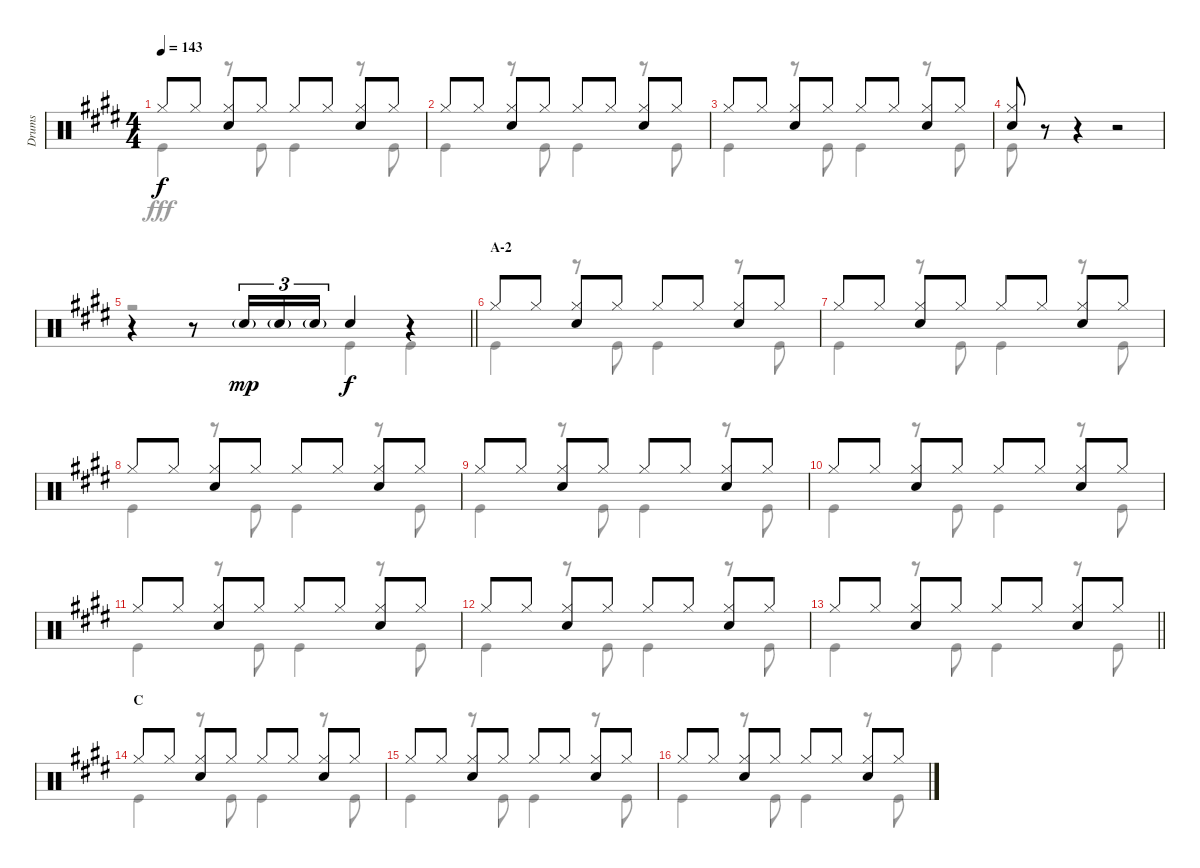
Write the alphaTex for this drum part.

\track ("Drums" "Drums") {instrument percussion}
\staff {score}
\articulation defaults
\voice
\ts (4 4)
\tempo 143
\clef neutral
\ks e "Hi-Hat (closed)".8{dy f} "Hi-Hat (closed)".8
("Hi-Hat (closed)" "Snare (hit) 2").8 "Hi-Hat (closed)".8 "Hi-Hat (closed)".8 "Hi-Hat (closed)".8 ("Hi-Hat (closed)" "Snare (hit) 2").8 "Hi-Hat (closed)".8 |
"Hi-Hat (closed)".8 "Hi-Hat (closed)".8 ("Hi-Hat (closed)" "Snare (hit) 2").8 "Hi-Hat (closed)".8 "Hi-Hat (closed)".8 "Hi-Hat (closed)".8 ("Hi-Hat (closed)" "Snare (hit) 2").8 "Hi-Hat (closed)".8 |
"Hi-Hat (closed)".8 "Hi-Hat (closed)".8 ("Hi-Hat (closed)" "Snare (hit) 2").8 "Hi-Hat (closed)".8 "Hi-Hat (closed)".8 "Hi-Hat (closed)".8 ("Hi-Hat (closed)" "Snare (hit) 2").8 "Hi-Hat (closed)".8 |
("Hi-Hat (closed)" "Snare (hit) 2").8 r.8 r.4 r.2 |
\barLineRight lightlight
r.4 r.8 "Snare (hit) 2"{g}.16{tu (3 2) dy mp} "Snare (hit) 2"{g}.16{tu (3 2)} "Snare (hit) 2"{g}.16{tu (3 2)} "Snare (hit) 2".4{dy f} r.4 |
\section ("" "A-2")
"Hi-Hat (closed)".8 "Hi-Hat (closed)".8 ("Hi-Hat (closed)" "Snare (hit) 2").8 "Hi-Hat (closed)".8 "Hi-Hat (closed)".8 "Hi-Hat (closed)".8 ("Hi-Hat (closed)" "Snare (hit) 2").8 "Hi-Hat (closed)".8 |
"Hi-Hat (closed)".8 "Hi-Hat (closed)".8 ("Hi-Hat (closed)" "Snare (hit) 2").8 "Hi-Hat (closed)".8 "Hi-Hat (closed)".8 "Hi-Hat (closed)".8 ("Hi-Hat (closed)" "Snare (hit) 2").8 "Hi-Hat (closed)".8 |
"Hi-Hat (closed)".8 "Hi-Hat (closed)".8 ("Hi-Hat (closed)" "Snare (hit) 2").8 "Hi-Hat (closed)".8 "Hi-Hat (closed)".8 "Hi-Hat (closed)".8 ("Hi-Hat (closed)" "Snare (hit) 2").8 "Hi-Hat (closed)".8 |
"Hi-Hat (closed)".8 "Hi-Hat (closed)".8 ("Hi-Hat (closed)" "Snare (hit) 2").8 "Hi-Hat (closed)".8 "Hi-Hat (closed)".8 "Hi-Hat (closed)".8 ("Hi-Hat (closed)" "Snare (hit) 2").8 "Hi-Hat (closed)".8 |
"Hi-Hat (closed)".8 "Hi-Hat (closed)".8 ("Hi-Hat (closed)" "Snare (hit) 2").8 "Hi-Hat (closed)".8 "Hi-Hat (closed)".8 "Hi-Hat (closed)".8 ("Hi-Hat (closed)" "Snare (hit) 2").8 "Hi-Hat (closed)".8 |
"Hi-Hat (closed)".8 "Hi-Hat (closed)".8 ("Hi-Hat (closed)" "Snare (hit) 2").8 "Hi-Hat (closed)".8 "Hi-Hat (closed)".8 "Hi-Hat (closed)".8 ("Hi-Hat (closed)" "Snare (hit) 2").8 "Hi-Hat (closed)".8 |
"Hi-Hat (closed)".8 "Hi-Hat (closed)".8 ("Hi-Hat (closed)" "Snare (hit) 2").8 "Hi-Hat (closed)".8 "Hi-Hat (closed)".8 "Hi-Hat (closed)".8 ("Hi-Hat (closed)" "Snare (hit) 2").8 "Hi-Hat (closed)".8 |
\barLineRight lightlight "Hi-Hat (closed)".8 "Hi-Hat (closed)".8
("Hi-Hat (closed)" "Snare (hit) 2").8 "Hi-Hat (closed)".8 "Hi-Hat (closed)".8 "Hi-Hat (closed)".8 ("Hi-Hat (closed)" "Snare (hit) 2").8 "Hi-Hat (closed)".8 |
\section ("" "C")
"Hi-Hat (closed)".8 "Hi-Hat (closed)".8 ("Hi-Hat (closed)" "Snare (hit) 2").8 "Hi-Hat (closed)".8 "Hi-Hat (closed)".8 "Hi-Hat (closed)".8 ("Hi-Hat (closed)" "Snare (hit) 2").8 "Hi-Hat (closed)".8 |
"Hi-Hat (closed)".8 "Hi-Hat (closed)".8 ("Hi-Hat (closed)" "Snare (hit) 2").8 "Hi-Hat (closed)".8 "Hi-Hat (closed)".8 "Hi-Hat (closed)".8 ("Hi-Hat (closed)" "Snare (hit) 2").8 "Hi-Hat (closed)".8 |
"Hi-Hat (closed)".8 "Hi-Hat (closed)".8 ("Hi-Hat (closed)" "Snare (hit) 2").8 "Hi-Hat (closed)".8 "Hi-Hat (closed)".8 "Hi-Hat (closed)".8 ("Hi-Hat (closed)" "Snare (hit) 2").8 "Hi-Hat (closed)".8
\voice
\clef neutral
\ottava regular
\simile none
\ks e "Kick (hit)".4{dy fff}
r.8 "Kick (hit)".8 "Kick (hit)".4 r.8 "Kick (hit)".8 |
"Kick (hit)".4 r.8 "Kick (hit)".8 "Kick (hit)".4 r.8 "Kick (hit)".8 |
"Kick (hit)".4 r.8 "Kick (hit)".8 "Kick (hit)".4 r.8 "Kick (hit)".8 |
"Kick (hit)".8 r.8 r.4 r.2 |
\barLineRight lightlight
r.2 "Kick (hit)".4 "Kick (hit)".4 |
"Kick (hit)".4 r.8 "Kick (hit)".8 "Kick (hit)".4 r.8 "Kick (hit)".8 |
"Kick (hit)".4 r.8 "Kick (hit)".8 "Kick (hit)".4 r.8 "Kick (hit)".8 |
"Kick (hit)".4 r.8 "Kick (hit)".8 "Kick (hit)".4 r.8 "Kick (hit)".8 |
"Kick (hit)".4 r.8 "Kick (hit)".8 "Kick (hit)".4 r.8 "Kick (hit)".8 |
"Kick (hit)".4 r.8 "Kick (hit)".8 "Kick (hit)".4 r.8 "Kick (hit)".8 |
"Kick (hit)".4 r.8 "Kick (hit)".8 "Kick (hit)".4 r.8 "Kick (hit)".8 |
"Kick (hit)".4 r.8 "Kick (hit)".8 "Kick (hit)".4 r.8 "Kick (hit)".8 |
\barLineRight lightlight "Kick (hit)".4
r.8 "Kick (hit)".8 "Kick (hit)".4 r.8 "Kick (hit)".8 |
"Kick (hit)".4 r.8 "Kick (hit)".8 "Kick (hit)".4 r.8 "Kick (hit)".8 |
"Kick (hit)".4 r.8 "Kick (hit)".8 "Kick (hit)".4 r.8 "Kick (hit)".8 |
"Kick (hit)".4 r.8 "Kick (hit)".8 "Kick (hit)".4 r.8 "Kick (hit)".8
